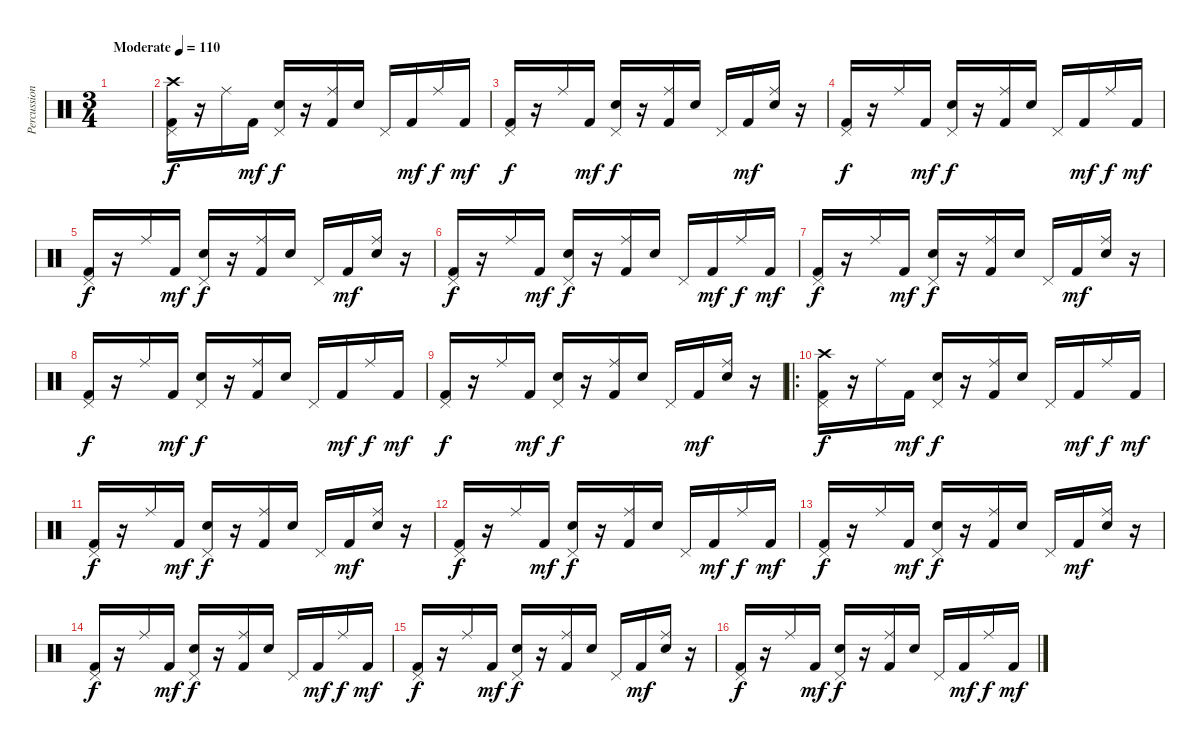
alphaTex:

\track ("Percussion" "Percussion") {instrument percussion}
\staff {score}
\articulation defaults
\ts (3 4)
\tempo (110 "Moderate")
\clef neutral
\ks c
|
("Crash high (hit)" "Pedal Hi-Hat (hit)" "Kick (hit) 2").16 r.16 "Ride (middle)".16 "Kick (hit) 2".16{dy mf} ("Electric Snare (hit)" "Pedal Hi-Hat (hit)").16{dy f} r.16 ("Ride (middle)" "Kick (hit) 2").16 "Electric Snare (hit)".16 "Pedal Hi-Hat (hit)".16 "Kick (hit) 2".16{dy mf} "Ride (middle)".16{dy f} "Kick (hit) 2".16{dy mf} |
("Pedal Hi-Hat (hit)" "Kick (hit) 2").16{dy f} r.16 "Ride (middle)".16 "Kick (hit) 2".16{dy mf} ("Electric Snare (hit)" "Pedal Hi-Hat (hit)").16{dy f} r.16 ("Ride (middle)" "Kick (hit) 2").16 "Electric Snare (hit)".16 "Pedal Hi-Hat (hit)".16 "Kick (hit) 2".16{dy mf} ("Ride (middle)" "Electric Snare (hit)").16 r.16 |
("Pedal Hi-Hat (hit)" "Kick (hit) 2").16{dy f} r.16 "Ride (middle)".16 "Kick (hit) 2".16{dy mf} ("Electric Snare (hit)" "Pedal Hi-Hat (hit)").16{dy f} r.16 ("Ride (middle)" "Kick (hit) 2").16 "Electric Snare (hit)".16 "Pedal Hi-Hat (hit)".16 "Kick (hit) 2".16{dy mf} "Ride (middle)".16{dy f} "Kick (hit) 2".16{dy mf} |
("Pedal Hi-Hat (hit)" "Kick (hit) 2").16{dy f} r.16 "Ride (middle)".16 "Kick (hit) 2".16{dy mf} ("Electric Snare (hit)" "Pedal Hi-Hat (hit)").16{dy f} r.16 ("Ride (middle)" "Kick (hit) 2").16 "Electric Snare (hit)".16 "Pedal Hi-Hat (hit)".16 "Kick (hit) 2".16{dy mf} ("Ride (middle)" "Electric Snare (hit)").16 r.16 |
("Pedal Hi-Hat (hit)" "Kick (hit) 2").16{dy f} r.16 "Ride (middle)".16 "Kick (hit) 2".16{dy mf} ("Electric Snare (hit)" "Pedal Hi-Hat (hit)").16{dy f} r.16 ("Ride (middle)" "Kick (hit) 2").16 "Electric Snare (hit)".16 "Pedal Hi-Hat (hit)".16 "Kick (hit) 2".16{dy mf} "Ride (middle)".16{dy f} "Kick (hit) 2".16{dy mf} |
("Pedal Hi-Hat (hit)" "Kick (hit) 2").16{dy f} r.16 "Ride (middle)".16 "Kick (hit) 2".16{dy mf} ("Electric Snare (hit)" "Pedal Hi-Hat (hit)").16{dy f} r.16 ("Ride (middle)" "Kick (hit) 2").16 "Electric Snare (hit)".16 "Pedal Hi-Hat (hit)".16 "Kick (hit) 2".16{dy mf} ("Ride (middle)" "Electric Snare (hit)").16 r.16 |
("Pedal Hi-Hat (hit)" "Kick (hit) 2").16{dy f} r.16 "Ride (middle)".16 "Kick (hit) 2".16{dy mf} ("Electric Snare (hit)" "Pedal Hi-Hat (hit)").16{dy f} r.16 ("Ride (middle)" "Kick (hit) 2").16 "Electric Snare (hit)".16 "Pedal Hi-Hat (hit)".16 "Kick (hit) 2".16{dy mf} "Ride (middle)".16{dy f} "Kick (hit) 2".16{dy mf} |
("Pedal Hi-Hat (hit)" "Kick (hit) 2").16{dy f} r.16 "Ride (middle)".16 "Kick (hit) 2".16{dy mf} ("Electric Snare (hit)" "Pedal Hi-Hat (hit)").16{dy f} r.16 ("Ride (middle)" "Kick (hit) 2").16 "Electric Snare (hit)".16 "Pedal Hi-Hat (hit)".16 "Kick (hit) 2".16{dy mf} ("Ride (middle)" "Electric Snare (hit)").16 r.16 |
\ro
("Crash high (hit)" "Pedal Hi-Hat (hit)" "Kick (hit) 2").16{dy f} r.16 "Ride (middle)".16 "Kick (hit) 2".16{dy mf} ("Electric Snare (hit)" "Pedal Hi-Hat (hit)").16{dy f} r.16 ("Ride (middle)" "Kick (hit) 2").16 "Electric Snare (hit)".16 "Pedal Hi-Hat (hit)".16 "Kick (hit) 2".16{dy mf} "Ride (middle)".16{dy f} "Kick (hit) 2".16{dy mf} |
("Pedal Hi-Hat (hit)" "Kick (hit) 2").16{dy f} r.16 "Ride (middle)".16 "Kick (hit) 2".16{dy mf} ("Electric Snare (hit)" "Pedal Hi-Hat (hit)").16{dy f} r.16 ("Ride (middle)" "Kick (hit) 2").16 "Electric Snare (hit)".16 "Pedal Hi-Hat (hit)".16 "Kick (hit) 2".16{dy mf} ("Ride (middle)" "Electric Snare (hit)").16 r.16 |
("Pedal Hi-Hat (hit)" "Kick (hit) 2").16{dy f} r.16 "Ride (middle)".16 "Kick (hit) 2".16{dy mf} ("Electric Snare (hit)" "Pedal Hi-Hat (hit)").16{dy f} r.16 ("Ride (middle)" "Kick (hit) 2").16 "Electric Snare (hit)".16 "Pedal Hi-Hat (hit)".16 "Kick (hit) 2".16{dy mf} "Ride (middle)".16{dy f} "Kick (hit) 2".16{dy mf} |
("Pedal Hi-Hat (hit)" "Kick (hit) 2").16{dy f} r.16 "Ride (middle)".16 "Kick (hit) 2".16{dy mf} ("Electric Snare (hit)" "Pedal Hi-Hat (hit)").16{dy f} r.16 ("Ride (middle)" "Kick (hit) 2").16 "Electric Snare (hit)".16 "Pedal Hi-Hat (hit)".16 "Kick (hit) 2".16{dy mf} ("Ride (middle)" "Electric Snare (hit)").16 r.16 |
("Pedal Hi-Hat (hit)" "Kick (hit) 2").16{dy f} r.16 "Ride (middle)".16 "Kick (hit) 2".16{dy mf} ("Electric Snare (hit)" "Pedal Hi-Hat (hit)").16{dy f} r.16 ("Ride (middle)" "Kick (hit) 2").16 "Electric Snare (hit)".16 "Pedal Hi-Hat (hit)".16 "Kick (hit) 2".16{dy mf} "Ride (middle)".16{dy f} "Kick (hit) 2".16{dy mf} |
("Pedal Hi-Hat (hit)" "Kick (hit) 2").16{dy f} r.16 "Ride (middle)".16 "Kick (hit) 2".16{dy mf} ("Electric Snare (hit)" "Pedal Hi-Hat (hit)").16{dy f} r.16 ("Ride (middle)" "Kick (hit) 2").16 "Electric Snare (hit)".16 "Pedal Hi-Hat (hit)".16 "Kick (hit) 2".16{dy mf} ("Ride (middle)" "Electric Snare (hit)").16 r.16 |
("Pedal Hi-Hat (hit)" "Kick (hit) 2").16{dy f} r.16 "Ride (middle)".16 "Kick (hit) 2".16{dy mf} ("Electric Snare (hit)" "Pedal Hi-Hat (hit)").16{dy f} r.16 ("Ride (middle)" "Kick (hit) 2").16 "Electric Snare (hit)".16 "Pedal Hi-Hat (hit)".16 "Kick (hit) 2".16{dy mf} "Ride (middle)".16{dy f} "Kick (hit) 2".16{dy mf}
